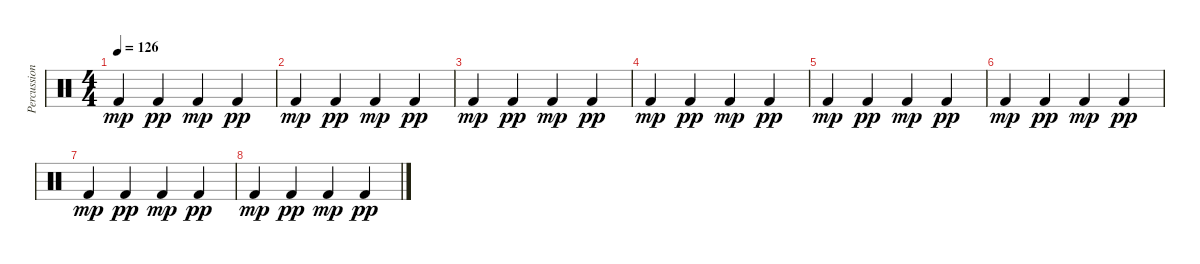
\track ("Percussion" "Percussion") {instrument percussion}
\staff {score}
\articulation defaults
\ts (4 4)
\tempo 126
\clef neutral
\ks c "Kick (hit) 2".4{dy mp} "Kick (hit) 2".4{dy pp} "Kick (hit) 2".4{dy mp} "Kick (hit) 2".4{dy pp}
|
"Kick (hit) 2".4{dy mp} "Kick (hit) 2".4{dy pp} "Kick (hit) 2".4{dy mp} "Kick (hit) 2".4{dy pp} |
"Kick (hit) 2".4{dy mp} "Kick (hit) 2".4{dy pp} "Kick (hit) 2".4{dy mp} "Kick (hit) 2".4{dy pp} |
"Kick (hit) 2".4{dy mp} "Kick (hit) 2".4{dy pp} "Kick (hit) 2".4{dy mp} "Kick (hit) 2".4{dy pp} |
"Kick (hit) 2".4{dy mp} "Kick (hit) 2".4{dy pp} "Kick (hit) 2".4{dy mp} "Kick (hit) 2".4{dy pp} |
"Kick (hit) 2".4{dy mp} "Kick (hit) 2".4{dy pp} "Kick (hit) 2".4{dy mp} "Kick (hit) 2".4{dy pp} |
"Kick (hit) 2".4{dy mp} "Kick (hit) 2".4{dy pp} "Kick (hit) 2".4{dy mp} "Kick (hit) 2".4{dy pp} |
"Kick (hit) 2".4{dy mp} "Kick (hit) 2".4{dy pp} "Kick (hit) 2".4{dy mp} "Kick (hit) 2".4{dy pp}
